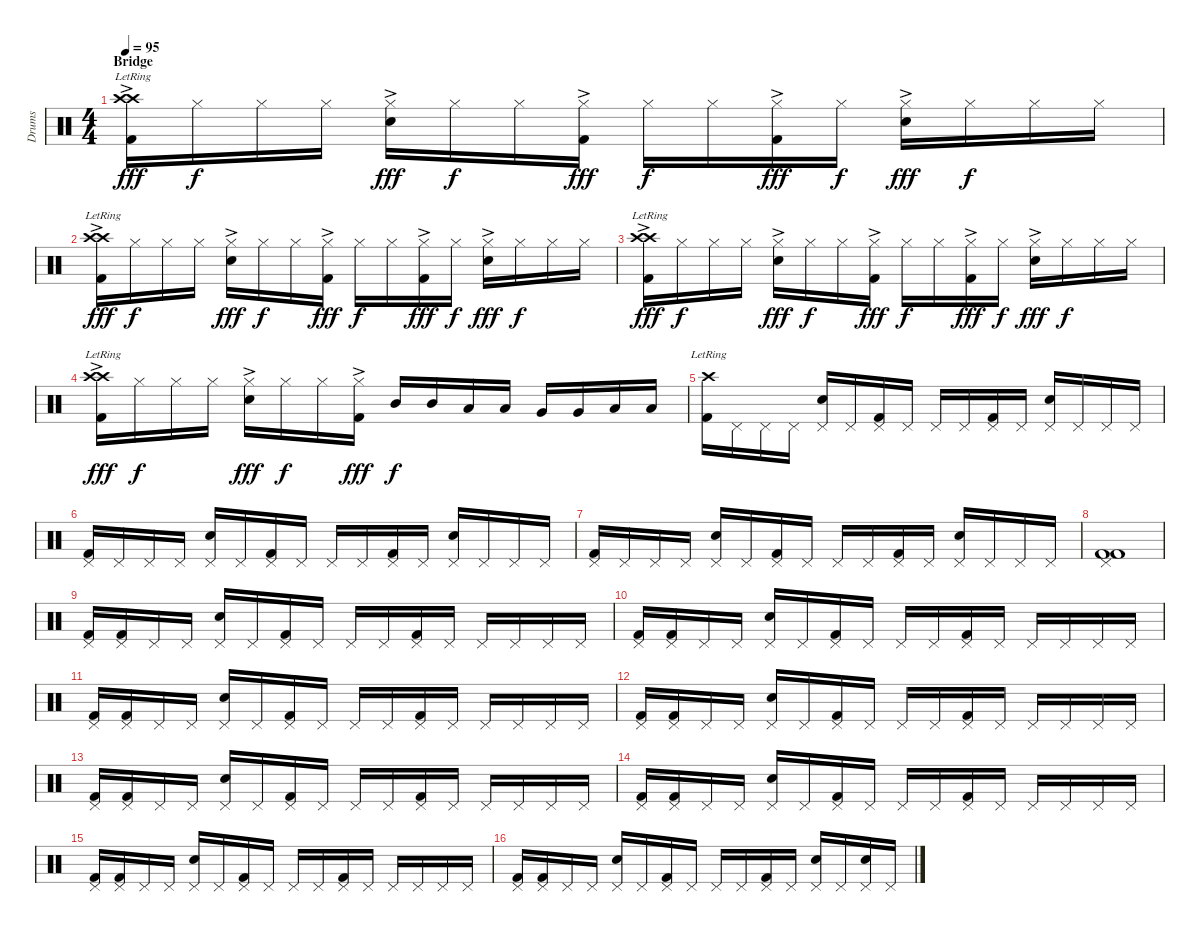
\track ("Drums" "Drums") {instrument percussion}
\staff {score}
\articulation defaults
\ts (4 4)
\section ("" "Bridge")
\tempo 95
\clef neutral
\ks c
("Crash high (hit)"{lr} "Crash high (hit)"{lr} "Kick (hit) 2"{ac}).16{dy fff} "Hi-Hat (closed)".16{dy f} "Hi-Hat (closed)".16 "Hi-Hat (closed)".16 ("Hi-Hat (closed)" "Electric Snare (hit)"{ac}).16{dy fff} "Hi-Hat (closed)".16{dy f} "Hi-Hat (closed)".16 ("Hi-Hat (closed)" "Kick (hit) 2"{ac}).16{dy fff} "Hi-Hat (closed)".16{dy f} "Hi-Hat (closed)".16 ("Hi-Hat (closed)" "Kick (hit) 2"{ac}).16{dy fff} "Hi-Hat (closed)".16{dy f} ("Hi-Hat (closed)" "Electric Snare (hit)"{ac}).16{dy fff} "Hi-Hat (closed)".16{dy f} "Hi-Hat (closed)".16 "Hi-Hat (closed)".16 |
("Crash high (hit)"{lr} "Crash high (hit)"{lr} "Kick (hit) 2"{ac}).16{dy fff} "Hi-Hat (closed)".16{dy f} "Hi-Hat (closed)".16 "Hi-Hat (closed)".16 ("Hi-Hat (closed)" "Electric Snare (hit)"{ac}).16{dy fff} "Hi-Hat (closed)".16{dy f} "Hi-Hat (closed)".16 ("Hi-Hat (closed)" "Kick (hit) 2"{ac}).16{dy fff} "Hi-Hat (closed)".16{dy f} "Hi-Hat (closed)".16 ("Hi-Hat (closed)" "Kick (hit) 2"{ac}).16{dy fff} "Hi-Hat (closed)".16{dy f} ("Hi-Hat (closed)" "Electric Snare (hit)"{ac}).16{dy fff} "Hi-Hat (closed)".16{dy f} "Hi-Hat (closed)".16 "Hi-Hat (closed)".16 |
("Crash high (hit)"{lr} "Crash high (hit)"{lr} "Kick (hit) 2"{ac}).16{dy fff} "Hi-Hat (closed)".16{dy f} "Hi-Hat (closed)".16 "Hi-Hat (closed)".16 ("Hi-Hat (closed)" "Electric Snare (hit)"{ac}).16{dy fff} "Hi-Hat (closed)".16{dy f} "Hi-Hat (closed)".16 ("Hi-Hat (closed)" "Kick (hit) 2"{ac}).16{dy fff} "Hi-Hat (closed)".16{dy f} "Hi-Hat (closed)".16 ("Hi-Hat (closed)" "Kick (hit) 2"{ac}).16{dy fff} "Hi-Hat (closed)".16{dy f} ("Hi-Hat (closed)" "Electric Snare (hit)"{ac}).16{dy fff} "Hi-Hat (closed)".16{dy f} "Hi-Hat (closed)".16 "Hi-Hat (closed)".16 |
("Crash high (hit)"{lr} "Crash high (hit)"{lr} "Kick (hit) 2"{ac}).16{dy fff} "Hi-Hat (closed)".16{dy f} "Hi-Hat (closed)".16 "Hi-Hat (closed)".16 ("Hi-Hat (closed)" "Electric Snare (hit)"{ac}).16{dy fff} "Hi-Hat (closed)".16{dy f} "Hi-Hat (closed)".16 ("Hi-Hat (closed)" "Kick (hit) 2"{ac}).16{dy fff} "Mid Tom (hit)".16{dy f} "Mid Tom (hit)".16 "Low Tom (hit)".16 "Low Tom (hit)".16 "Very Low Tom (hit)".16 "Very Low Tom (hit)".16 "Low Floor Tom (hit)".16 "Low Floor Tom (hit)".16 |
("Crash high (hit)"{lr} "Kick (hit) 2").16 "Pedal Hi-Hat (hit)".16 "Pedal Hi-Hat (hit)".16 "Pedal Hi-Hat (hit)".16 ("Pedal Hi-Hat (hit)" "Electric Snare (hit)").16 "Pedal Hi-Hat (hit)".16 ("Pedal Hi-Hat (hit)" "Kick (hit) 2").16 "Pedal Hi-Hat (hit)".16 "Pedal Hi-Hat (hit)".16 "Pedal Hi-Hat (hit)".16 ("Pedal Hi-Hat (hit)" "Kick (hit) 2").16 "Pedal Hi-Hat (hit)".16 ("Pedal Hi-Hat (hit)" "Electric Snare (hit)").16 "Pedal Hi-Hat (hit)".16 "Pedal Hi-Hat (hit)".16 "Pedal Hi-Hat (hit)".16 |
("Pedal Hi-Hat (hit)" "Kick (hit) 2").16 "Pedal Hi-Hat (hit)".16 "Pedal Hi-Hat (hit)".16 "Pedal Hi-Hat (hit)".16 ("Pedal Hi-Hat (hit)" "Electric Snare (hit)").16 "Pedal Hi-Hat (hit)".16 ("Pedal Hi-Hat (hit)" "Kick (hit) 2").16 "Pedal Hi-Hat (hit)".16 "Pedal Hi-Hat (hit)".16 "Pedal Hi-Hat (hit)".16 ("Pedal Hi-Hat (hit)" "Kick (hit) 2").16 "Pedal Hi-Hat (hit)".16 ("Pedal Hi-Hat (hit)" "Electric Snare (hit)").16 "Pedal Hi-Hat (hit)".16 "Pedal Hi-Hat (hit)".16 "Pedal Hi-Hat (hit)".16 |
("Pedal Hi-Hat (hit)" "Kick (hit) 2").16 "Pedal Hi-Hat (hit)".16 "Pedal Hi-Hat (hit)".16 "Pedal Hi-Hat (hit)".16 ("Pedal Hi-Hat (hit)" "Electric Snare (hit)").16 "Pedal Hi-Hat (hit)".16 ("Pedal Hi-Hat (hit)" "Kick (hit) 2").16 "Pedal Hi-Hat (hit)".16 "Pedal Hi-Hat (hit)".16 "Pedal Hi-Hat (hit)".16 ("Pedal Hi-Hat (hit)" "Kick (hit) 2").16 "Pedal Hi-Hat (hit)".16 ("Pedal Hi-Hat (hit)" "Electric Snare (hit)").16 "Pedal Hi-Hat (hit)".16 "Pedal Hi-Hat (hit)".16 "Pedal Hi-Hat (hit)".16 |
("Pedal Hi-Hat (hit)" "Kick (hit) 2" "Kick (hit) 2").1 |
("Pedal Hi-Hat (hit)" "Kick (hit) 2").16 ("Pedal Hi-Hat (hit)" "Kick (hit) 2").16 "Pedal Hi-Hat (hit)".16 "Pedal Hi-Hat (hit)".16 ("Pedal Hi-Hat (hit)" "Electric Snare (hit)").16 "Pedal Hi-Hat (hit)".16 ("Pedal Hi-Hat (hit)" "Kick (hit) 2").16 "Pedal Hi-Hat (hit)".16 "Pedal Hi-Hat (hit)".16 "Pedal Hi-Hat (hit)".16 ("Pedal Hi-Hat (hit)" "Kick (hit) 2").16 "Pedal Hi-Hat (hit)".16 "Pedal Hi-Hat (hit)".16 "Pedal Hi-Hat (hit)".16 "Pedal Hi-Hat (hit)".16 "Pedal Hi-Hat (hit)".16 |
("Pedal Hi-Hat (hit)" "Kick (hit) 2").16 ("Pedal Hi-Hat (hit)" "Kick (hit) 2").16 "Pedal Hi-Hat (hit)".16 "Pedal Hi-Hat (hit)".16 ("Pedal Hi-Hat (hit)" "Electric Snare (hit)").16 "Pedal Hi-Hat (hit)".16 ("Pedal Hi-Hat (hit)" "Kick (hit) 2").16 "Pedal Hi-Hat (hit)".16 "Pedal Hi-Hat (hit)".16 "Pedal Hi-Hat (hit)".16 ("Pedal Hi-Hat (hit)" "Kick (hit) 2").16 "Pedal Hi-Hat (hit)".16 "Pedal Hi-Hat (hit)".16 "Pedal Hi-Hat (hit)".16 "Pedal Hi-Hat (hit)".16 "Pedal Hi-Hat (hit)".16 |
("Pedal Hi-Hat (hit)" "Kick (hit) 2").16 ("Pedal Hi-Hat (hit)" "Kick (hit) 2").16 "Pedal Hi-Hat (hit)".16 "Pedal Hi-Hat (hit)".16 ("Pedal Hi-Hat (hit)" "Electric Snare (hit)").16 "Pedal Hi-Hat (hit)".16 ("Pedal Hi-Hat (hit)" "Kick (hit) 2").16 "Pedal Hi-Hat (hit)".16 "Pedal Hi-Hat (hit)".16 "Pedal Hi-Hat (hit)".16 ("Pedal Hi-Hat (hit)" "Kick (hit) 2").16 "Pedal Hi-Hat (hit)".16 "Pedal Hi-Hat (hit)".16 "Pedal Hi-Hat (hit)".16 "Pedal Hi-Hat (hit)".16 "Pedal Hi-Hat (hit)".16 |
("Pedal Hi-Hat (hit)" "Kick (hit) 2").16 ("Pedal Hi-Hat (hit)" "Kick (hit) 2").16 "Pedal Hi-Hat (hit)".16 "Pedal Hi-Hat (hit)".16 ("Pedal Hi-Hat (hit)" "Electric Snare (hit)").16 "Pedal Hi-Hat (hit)".16 ("Pedal Hi-Hat (hit)" "Kick (hit) 2").16 "Pedal Hi-Hat (hit)".16 "Pedal Hi-Hat (hit)".16 "Pedal Hi-Hat (hit)".16 ("Pedal Hi-Hat (hit)" "Kick (hit) 2").16 "Pedal Hi-Hat (hit)".16 "Pedal Hi-Hat (hit)".16 "Pedal Hi-Hat (hit)".16 "Pedal Hi-Hat (hit)".16 "Pedal Hi-Hat (hit)".16 |
("Pedal Hi-Hat (hit)" "Kick (hit) 2").16 ("Pedal Hi-Hat (hit)" "Kick (hit) 2").16 "Pedal Hi-Hat (hit)".16 "Pedal Hi-Hat (hit)".16 ("Pedal Hi-Hat (hit)" "Electric Snare (hit)").16 "Pedal Hi-Hat (hit)".16 ("Pedal Hi-Hat (hit)" "Kick (hit) 2").16 "Pedal Hi-Hat (hit)".16 "Pedal Hi-Hat (hit)".16 "Pedal Hi-Hat (hit)".16 ("Pedal Hi-Hat (hit)" "Kick (hit) 2").16 "Pedal Hi-Hat (hit)".16 "Pedal Hi-Hat (hit)".16 "Pedal Hi-Hat (hit)".16 "Pedal Hi-Hat (hit)".16 "Pedal Hi-Hat (hit)".16 |
("Pedal Hi-Hat (hit)" "Kick (hit) 2").16 ("Pedal Hi-Hat (hit)" "Kick (hit) 2").16 "Pedal Hi-Hat (hit)".16 "Pedal Hi-Hat (hit)".16 ("Pedal Hi-Hat (hit)" "Electric Snare (hit)").16 "Pedal Hi-Hat (hit)".16 ("Pedal Hi-Hat (hit)" "Kick (hit) 2").16 "Pedal Hi-Hat (hit)".16 "Pedal Hi-Hat (hit)".16 "Pedal Hi-Hat (hit)".16 ("Pedal Hi-Hat (hit)" "Kick (hit) 2").16 "Pedal Hi-Hat (hit)".16 "Pedal Hi-Hat (hit)".16 "Pedal Hi-Hat (hit)".16 "Pedal Hi-Hat (hit)".16 "Pedal Hi-Hat (hit)".16 |
("Pedal Hi-Hat (hit)" "Kick (hit) 2").16 ("Pedal Hi-Hat (hit)" "Kick (hit) 2").16 "Pedal Hi-Hat (hit)".16 "Pedal Hi-Hat (hit)".16 ("Pedal Hi-Hat (hit)" "Electric Snare (hit)").16 "Pedal Hi-Hat (hit)".16 ("Pedal Hi-Hat (hit)" "Kick (hit) 2").16 "Pedal Hi-Hat (hit)".16 "Pedal Hi-Hat (hit)".16 "Pedal Hi-Hat (hit)".16 ("Pedal Hi-Hat (hit)" "Kick (hit) 2").16 "Pedal Hi-Hat (hit)".16 "Pedal Hi-Hat (hit)".16 "Pedal Hi-Hat (hit)".16 "Pedal Hi-Hat (hit)".16 "Pedal Hi-Hat (hit)".16 |
("Pedal Hi-Hat (hit)" "Kick (hit) 2").16 ("Pedal Hi-Hat (hit)" "Kick (hit) 2").16 "Pedal Hi-Hat (hit)".16 "Pedal Hi-Hat (hit)".16 ("Pedal Hi-Hat (hit)" "Electric Snare (hit)").16 "Pedal Hi-Hat (hit)".16 ("Pedal Hi-Hat (hit)" "Kick (hit) 2").16 "Pedal Hi-Hat (hit)".16 "Pedal Hi-Hat (hit)".16 "Pedal Hi-Hat (hit)".16 ("Pedal Hi-Hat (hit)" "Kick (hit) 2").16 "Pedal Hi-Hat (hit)".16 ("Pedal Hi-Hat (hit)" "Electric Snare (hit)").16 "Pedal Hi-Hat (hit)".16 ("Pedal Hi-Hat (hit)" "Electric Snare (hit)").16 "Pedal Hi-Hat (hit)".16
